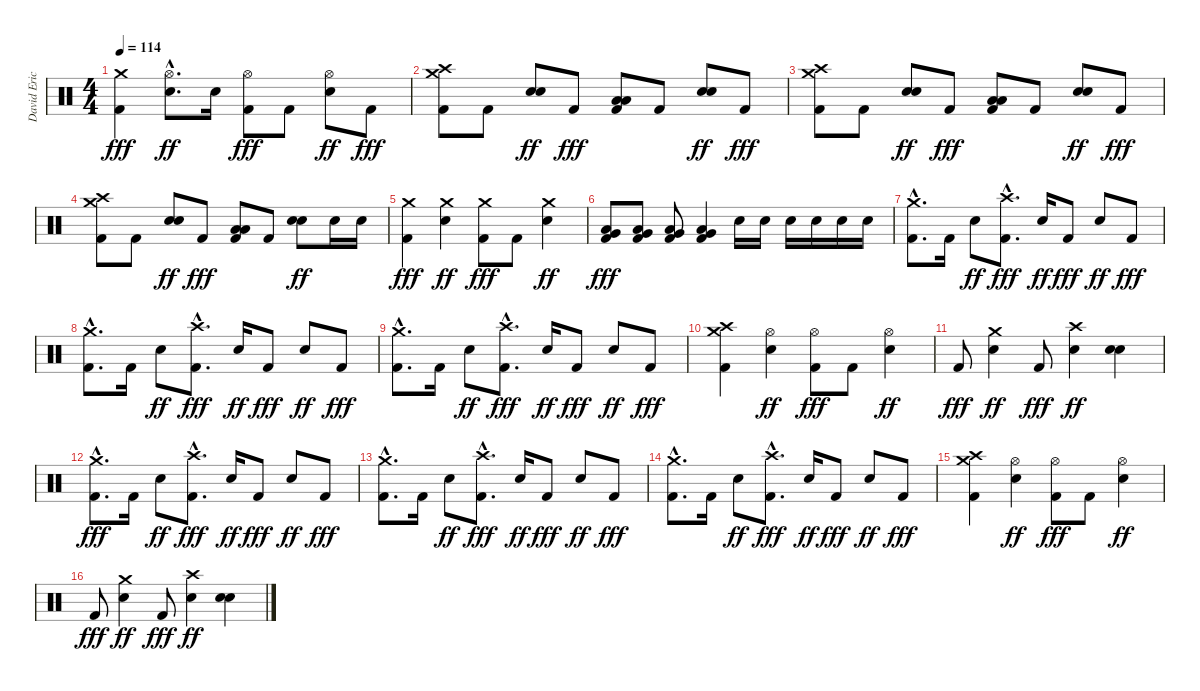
\track ("David Eric Grohl" "David Eric") {instrument percussion}
\staff {score}
\articulation defaults
\ts (4 4)
\tempo 114
\clef neutral
\ks c
("Crash medium (hit)" "Kick (hit) 2").4{dy fff} ("Hi-Hat (open)"{hac} "Electric Snare (hit)"{hac}).8{d dy ff} "Electric Snare (hit)".16 ("Hi-Hat (open)" "Kick (hit) 2").8{dy fff} "Kick (hit) 2".8 ("Hi-Hat (open)" "Electric Snare (hit)").8{dy ff} "Kick (hit) 2".8{dy fff} |
("Crash high (hit)" "Crash medium (hit)" "Kick (hit) 2").8 "Kick (hit) 2".8 ("Electric Snare (hit)" "Electric Snare (hit)").8{dy ff} "Kick (hit) 2".8{dy fff} ("Low Tom (hit)" "Low Tom (hit)" "Kick (hit) 2").8 "Kick (hit) 2".8 ("Electric Snare (hit)" "Electric Snare (hit)").8{dy ff} "Kick (hit) 2".8{dy fff} |
("Crash high (hit)" "Crash medium (hit)" "Kick (hit) 2").8 "Kick (hit) 2".8 ("Electric Snare (hit)" "Electric Snare (hit)").8{dy ff} "Kick (hit) 2".8{dy fff} ("Low Tom (hit)" "Low Tom (hit)" "Kick (hit) 2").8 "Kick (hit) 2".8 ("Electric Snare (hit)" "Electric Snare (hit)").8{dy ff} "Kick (hit) 2".8{dy fff} |
("Crash high (hit)" "Crash medium (hit)" "Kick (hit) 2").8 "Kick (hit) 2".8 ("Electric Snare (hit)" "Electric Snare (hit)").8{dy ff} "Kick (hit) 2".8{dy fff} ("Low Tom (hit)" "Low Tom (hit)" "Kick (hit) 2").8 "Kick (hit) 2".8 ("Electric Snare (hit)" "Electric Snare (hit)").8{dy ff} "Electric Snare (hit)".16 "Electric Snare (hit)".16 |
("Crash medium (hit)" "Kick (hit) 2").4{dy fff} ("Crash medium (hit)" "Electric Snare (hit)").4{dy ff} ("Crash medium (hit)" "Kick (hit) 2").8{dy fff} "Kick (hit) 2".8 ("Crash medium (hit)" "Electric Snare (hit)").4{dy ff} |
("Low Tom (hit)" "Very Low Tom (hit)" "Kick (hit) 2").8{dy fff} ("Low Tom (hit)" "Very Low Tom (hit)" "Kick (hit) 2").8 ("Low Tom (hit)" "Very Low Tom (hit)" "Kick (hit) 2").8 ("Low Tom (hit)" "Very Low Tom (hit)" "Kick (hit) 2").4 "Electric Snare (hit)".16 "Electric Snare (hit)".16 "Electric Snare (hit)".16 "Electric Snare (hit)".16 "Electric Snare (hit)".16 "Electric Snare (hit)".16 |
("Crash medium (hit)"{hac} "Kick (hit) 2"{hac}).8{d} "Kick (hit) 2".16 "Electric Snare (hit)".8{dy ff} ("Crash high (hit)"{hac} "Kick (hit) 2"{hac}).8{d dy fff} "Electric Snare (hit)".16{dy ff} "Kick (hit) 2".8{dy fff} "Electric Snare (hit)".8{dy ff} "Kick (hit) 2".8{dy fff} |
("Crash medium (hit)"{hac} "Kick (hit) 2"{hac}).8{d} "Kick (hit) 2".16 "Electric Snare (hit)".8{dy ff} ("Crash high (hit)"{hac} "Kick (hit) 2"{hac}).8{d dy fff} "Electric Snare (hit)".16{dy ff} "Kick (hit) 2".8{dy fff} "Electric Snare (hit)".8{dy ff} "Kick (hit) 2".8{dy fff} |
("Crash medium (hit)"{hac} "Kick (hit) 2"{hac}).8{d} "Kick (hit) 2".16 "Electric Snare (hit)".8{dy ff} ("Crash high (hit)"{hac} "Kick (hit) 2"{hac}).8{d dy fff} "Electric Snare (hit)".16{dy ff} "Kick (hit) 2".8{dy fff} "Electric Snare (hit)".8{dy ff} "Kick (hit) 2".8{dy fff} |
("Crash high (hit)" "Crash medium (hit)" "Kick (hit) 2").4 ("Hi-Hat (open)" "Electric Snare (hit)").4{dy ff} ("Hi-Hat (open)" "Kick (hit) 2").8{dy fff} "Kick (hit) 2".8 ("Hi-Hat (open)" "Electric Snare (hit)").4{dy ff} |
"Kick (hit) 2".8{dy fff} ("Crash medium (hit)" "Electric Snare (hit)").4{dy ff} "Kick (hit) 2".8{dy fff} ("Crash high (hit)" "Electric Snare (hit)").4{dy ff} ("Electric Snare (hit)" "Electric Snare (hit)").4 |
("Crash medium (hit)"{hac} "Kick (hit) 2"{hac}).8{d dy fff} "Kick (hit) 2".16 "Electric Snare (hit)".8{dy ff} ("Crash high (hit)"{hac} "Kick (hit) 2"{hac}).8{d dy fff} "Electric Snare (hit)".16{dy ff} "Kick (hit) 2".8{dy fff} "Electric Snare (hit)".8{dy ff} "Kick (hit) 2".8{dy fff} |
("Crash medium (hit)"{hac} "Kick (hit) 2"{hac}).8{d} "Kick (hit) 2".16 "Electric Snare (hit)".8{dy ff} ("Crash high (hit)"{hac} "Kick (hit) 2"{hac}).8{d dy fff} "Electric Snare (hit)".16{dy ff} "Kick (hit) 2".8{dy fff} "Electric Snare (hit)".8{dy ff} "Kick (hit) 2".8{dy fff} |
("Crash medium (hit)"{hac} "Kick (hit) 2"{hac}).8{d} "Kick (hit) 2".16 "Electric Snare (hit)".8{dy ff} ("Crash high (hit)"{hac} "Kick (hit) 2"{hac}).8{d dy fff} "Electric Snare (hit)".16{dy ff} "Kick (hit) 2".8{dy fff} "Electric Snare (hit)".8{dy ff} "Kick (hit) 2".8{dy fff} |
("Crash high (hit)" "Crash medium (hit)" "Kick (hit) 2").4 ("Hi-Hat (open)" "Electric Snare (hit)").4{dy ff} ("Hi-Hat (open)" "Kick (hit) 2").8{dy fff} "Kick (hit) 2".8 ("Hi-Hat (open)" "Electric Snare (hit)").4{dy ff} |
"Kick (hit) 2".8{dy fff} ("Crash medium (hit)" "Electric Snare (hit)").4{dy ff} "Kick (hit) 2".8{dy fff} ("Crash high (hit)" "Electric Snare (hit)").4{dy ff} ("Electric Snare (hit)" "Electric Snare (hit)").4
